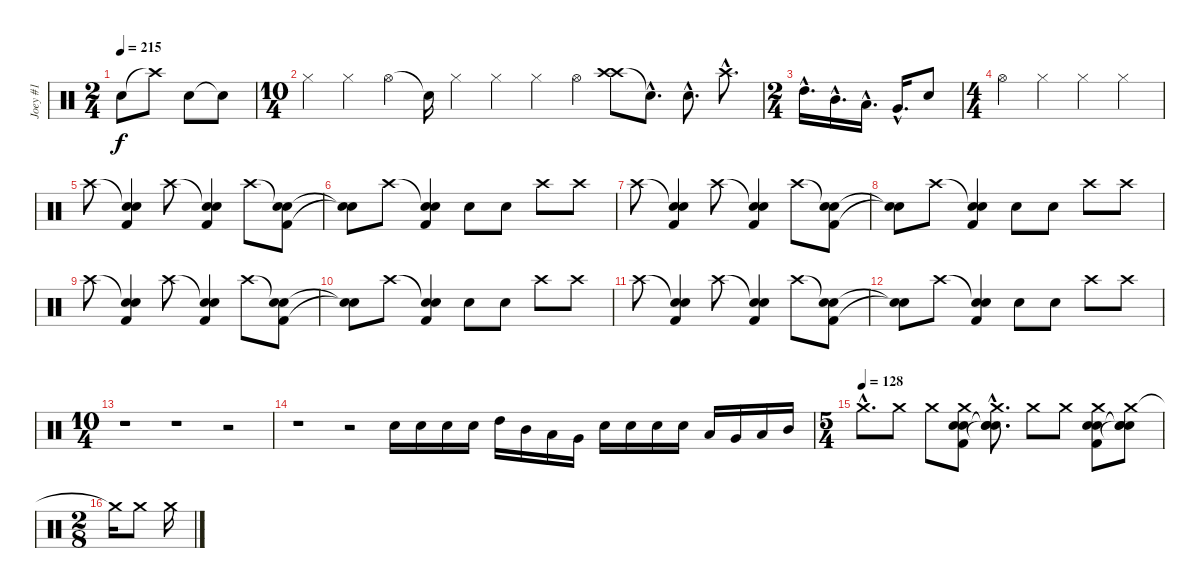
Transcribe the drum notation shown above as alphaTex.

\track ("Joey #1" "Joey #1") {instrument percussion}
\staff {score}
\articulation defaults
\ts (2 4)
\tempo 215
\clef neutral
\ks c "Snare (hit)"{t}.8{dy f} "Crash high (hit)"{t}.8 "Snare (hit) 2".8 "Snare (hit)"{t}.8
|
\ts (10 4)
"Hi-Hat (closed)".4{volume 12} "Hi-Hat (closed)".4 "Hi-Hat (open)".4 "Snare (hit)"{t}.16 "Hi-Hat (closed)".4 "Hi-Hat (closed)".4 "Hi-Hat (closed)".4 "Hi-Hat (open)".4 ("Crash high (hit)" "Crash high (hit)"{t}).8 "Snare (hit)"{hac t}.8{d} "Snare (hit) 2"{hac}.8{d} "Crash high (hit)"{hac}.8{d} |
\ts (2 4)
"High Tom (hit)"{hac}.16{d} "Mid Tom (hit)"{hac}.16{d} "Low Tom (hit)"{hac}.16{d} "Very Low Tom (hit)"{hac}.16{d} "Snare (hit) 2".8 |
\ts (4 4)
"Hi-Hat (open)".4 "Hi-Hat (closed)".4 "Hi-Hat (closed)".4 "Hi-Hat (closed)".4 |
"Crash high (hit)".8{volume 10} ("Snare (hit)"{t} "Kick (hit) 2" "Snare (hit) 2").4 "Crash high (hit)".8 ("Snare (hit)"{t} "Kick (hit) 2" "Snare (hit) 2").4 "Crash high (hit)".8 ("Snare (hit)"{t} "Kick (hit) 2" "Snare (hit) 2").8 |
("Snare (hit)"{t} "Snare (hit)"{t}).8 "Crash high (hit)".8 ("Snare (hit)"{t} "Kick (hit) 2" "Snare (hit) 2").4 "Snare (hit) 2".8 "Snare (hit) 2".8 "Crash high (hit)".8 "Crash high (hit)".8 |
"Crash high (hit)".8{volume 10} ("Snare (hit)"{t} "Kick (hit) 2" "Snare (hit) 2").4 "Crash high (hit)".8 ("Snare (hit)"{t} "Kick (hit) 2" "Snare (hit) 2").4 "Crash high (hit)".8 ("Snare (hit)"{t} "Kick (hit) 2" "Snare (hit) 2").8 |
("Snare (hit)"{t} "Snare (hit)"{t}).8 "Crash high (hit)".8 ("Snare (hit)"{t} "Kick (hit) 2" "Snare (hit) 2").4 "Snare (hit) 2".8 "Snare (hit) 2".8 "Crash high (hit)".8 "Crash high (hit)".8 |
"Crash high (hit)".8{volume 10} ("Snare (hit)"{t} "Kick (hit) 2" "Snare (hit) 2").4 "Crash high (hit)".8 ("Snare (hit)"{t} "Kick (hit) 2" "Snare (hit) 2").4 "Crash high (hit)".8 ("Snare (hit)"{t} "Kick (hit) 2" "Snare (hit) 2").8 |
("Snare (hit)"{t} "Snare (hit)"{t}).8 "Crash high (hit)".8 ("Snare (hit)"{t} "Kick (hit) 2" "Snare (hit) 2").4 "Snare (hit) 2".8 "Snare (hit) 2".8 "Crash high (hit)".8 "Crash high (hit)".8 |
"Crash high (hit)".8{volume 10} ("Snare (hit)"{t} "Kick (hit) 2" "Snare (hit) 2").4 "Crash high (hit)".8 ("Snare (hit)"{t} "Kick (hit) 2" "Snare (hit) 2").4 "Crash high (hit)".8 ("Snare (hit)"{t} "Kick (hit) 2" "Snare (hit) 2").8 |
("Snare (hit)"{t} "Snare (hit)"{t}).8 "Crash high (hit)".8 ("Snare (hit)"{t} "Kick (hit) 2" "Snare (hit) 2").4 "Snare (hit) 2".8 "Snare (hit) 2".8 "Crash high (hit)".8 "Crash high (hit)".8 |
\ts (10 4)
r.1 r.1 r.2 |
r.1 r.2 "Snare (hit) 2".16 "Snare (hit) 2".16 "Snare (hit) 2".16 "Snare (hit) 2".16 "High Tom (hit)".16 "Mid Tom (hit)".16 "Low Tom (hit)".16 "Very Low Tom (hit)".16 "Snare (hit) 2".16 "Snare (hit) 2".16 "Snare (hit) 2".16 "Snare (hit) 2".16 "Low Floor Tom (hit)".16 "Very Low Tom (hit)".16 "Low Tom (hit)".16 "Mid Tom (hit)".16 |
\ts (5 4)
\tempo (128)
"Crash medium (hit)"{hac}.8{d} "Crash medium (hit)".8 "Crash medium (hit)".8 ("Crash medium (hit)" "Electric Snare (hit)" "Electric Snare (hit)" "Kick (hit) 2").8 ("Crash medium (hit)"{hac} "Snare (hit)"{hac t} "Snare (hit)"{hac t} "Snare (hit)"{hac t}).8{d} "Crash medium (hit)".8 "Crash medium (hit)".8 ("Crash medium (hit)" "Electric Snare (hit)" "Electric Snare (hit)" "Kick (hit) 2").8 ("Crash medium (hit)" "Snare (hit)"{t} "Snare (hit)"{t} "Snare (hit)"{t}).8 |
\ts (2 8)
"Crash medium (hit)"{t}.16 "Crash medium (hit)".8 "Crash medium (hit)".16
